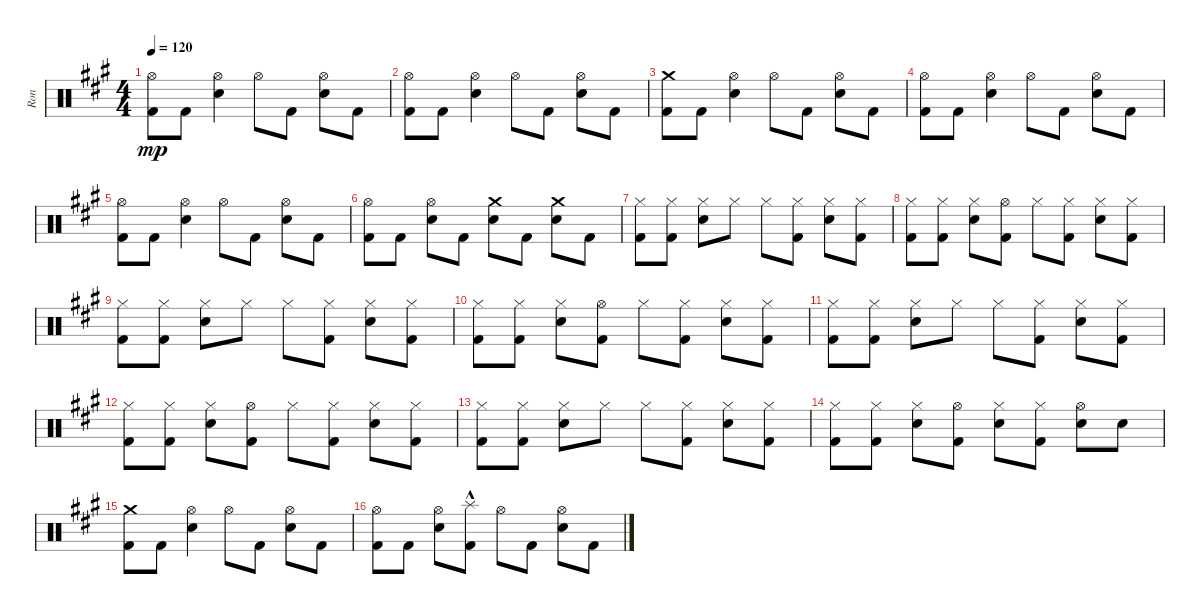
\track ("Ron" "Ron") {instrument percussion}
\staff {score}
\articulation defaults
\ts (4 4)
\tempo 120
\clef neutral
\ks a
("Hi-Hat (open)" "Kick (hit) 2").8{dy mp} "Kick (hit) 2".8 ("Hi-Hat (open)" "Electric Snare (hit)").4 "Hi-Hat (open)".8 "Kick (hit) 2".8 ("Hi-Hat (open)" "Electric Snare (hit)").8 "Kick (hit) 2".8 |
("Hi-Hat (open)" "Kick (hit) 2").8 "Kick (hit) 2".8 ("Hi-Hat (open)" "Electric Snare (hit)").4 "Hi-Hat (open)".8 "Kick (hit) 2".8 ("Hi-Hat (open)" "Electric Snare (hit)").8 "Kick (hit) 2".8 |
("Crash medium (hit)" "Kick (hit) 2").8 "Kick (hit) 2".8 ("Hi-Hat (open)" "Electric Snare (hit)").4 "Hi-Hat (open)".8 "Kick (hit) 2".8 ("Hi-Hat (open)" "Electric Snare (hit)").8 "Kick (hit) 2".8 |
("Hi-Hat (open)" "Kick (hit) 2").8 "Kick (hit) 2".8 ("Hi-Hat (open)" "Electric Snare (hit)").4 "Hi-Hat (open)".8 "Kick (hit) 2".8 ("Hi-Hat (open)" "Electric Snare (hit)").8 "Kick (hit) 2".8 |
("Hi-Hat (open)" "Kick (hit) 2").8 "Kick (hit) 2".8 ("Hi-Hat (open)" "Electric Snare (hit)").4 "Hi-Hat (open)".8 "Kick (hit) 2".8 ("Hi-Hat (open)" "Electric Snare (hit)").8 "Kick (hit) 2".8 |
("Hi-Hat (open)" "Kick (hit) 2").8 "Kick (hit) 2".8 ("Hi-Hat (open)" "Electric Snare (hit)").8 "Kick (hit) 2".8 ("Crash medium (hit)" "Electric Snare (hit)").8 "Kick (hit) 2".8 ("Crash medium (hit)" "Electric Snare (hit)").8 "Kick (hit) 2".8 |
("Hi-Hat (closed)" "Kick (hit) 2").8 ("Hi-Hat (closed)" "Kick (hit) 2").8 ("Hi-Hat (closed)" "Electric Snare (hit)").8 "Hi-Hat (closed)".8 "Hi-Hat (closed)".8 ("Hi-Hat (closed)" "Kick (hit) 2").8 ("Hi-Hat (closed)" "Electric Snare (hit)").8 ("Hi-Hat (closed)" "Kick (hit) 2").8 |
("Hi-Hat (closed)" "Kick (hit) 2").8 ("Hi-Hat (closed)" "Kick (hit) 2").8 ("Hi-Hat (closed)" "Electric Snare (hit)").8 ("Hi-Hat (open)" "Kick (hit) 2").8 "Hi-Hat (closed)".8 ("Hi-Hat (closed)" "Kick (hit) 2").8 ("Hi-Hat (closed)" "Electric Snare (hit)").8 ("Hi-Hat (closed)" "Kick (hit) 2").8 |
("Hi-Hat (closed)" "Kick (hit) 2").8 ("Hi-Hat (closed)" "Kick (hit) 2").8 ("Hi-Hat (closed)" "Electric Snare (hit)").8 "Hi-Hat (closed)".8 "Hi-Hat (closed)".8 ("Hi-Hat (closed)" "Kick (hit) 2").8 ("Hi-Hat (closed)" "Electric Snare (hit)").8 ("Hi-Hat (closed)" "Kick (hit) 2").8 |
("Hi-Hat (closed)" "Kick (hit) 2").8 ("Hi-Hat (closed)" "Kick (hit) 2").8 ("Hi-Hat (closed)" "Electric Snare (hit)").8 ("Hi-Hat (open)" "Kick (hit) 2").8 "Hi-Hat (closed)".8 ("Hi-Hat (closed)" "Kick (hit) 2").8 ("Hi-Hat (closed)" "Electric Snare (hit)").8 ("Hi-Hat (closed)" "Kick (hit) 2").8 |
("Hi-Hat (closed)" "Kick (hit) 2").8 ("Hi-Hat (closed)" "Kick (hit) 2").8 ("Hi-Hat (closed)" "Electric Snare (hit)").8 "Hi-Hat (closed)".8 "Hi-Hat (closed)".8 ("Hi-Hat (closed)" "Kick (hit) 2").8 ("Hi-Hat (closed)" "Electric Snare (hit)").8 ("Hi-Hat (closed)" "Kick (hit) 2").8 |
("Hi-Hat (closed)" "Kick (hit) 2").8 ("Hi-Hat (closed)" "Kick (hit) 2").8 ("Hi-Hat (closed)" "Electric Snare (hit)").8 ("Hi-Hat (open)" "Kick (hit) 2").8 "Hi-Hat (closed)".8 ("Hi-Hat (closed)" "Kick (hit) 2").8 ("Hi-Hat (closed)" "Electric Snare (hit)").8 ("Hi-Hat (closed)" "Kick (hit) 2").8 |
("Hi-Hat (closed)" "Kick (hit) 2").8 ("Hi-Hat (closed)" "Kick (hit) 2").8 ("Hi-Hat (closed)" "Electric Snare (hit)").8 "Hi-Hat (closed)".8 "Hi-Hat (closed)".8 ("Hi-Hat (closed)" "Kick (hit) 2").8 ("Hi-Hat (closed)" "Electric Snare (hit)").8 ("Hi-Hat (closed)" "Kick (hit) 2").8 |
("Hi-Hat (closed)" "Kick (hit) 2").8 ("Hi-Hat (closed)" "Kick (hit) 2").8 ("Hi-Hat (closed)" "Electric Snare (hit)").8 ("Hi-Hat (open)" "Kick (hit) 2").8 ("Hi-Hat (closed)" "Electric Snare (hit)").8 ("Hi-Hat (closed)" "Kick (hit) 2").8 ("Hi-Hat (open)" "Electric Snare (hit)").8 "Electric Snare (hit)".8 |
("Crash medium (hit)" "Kick (hit) 2").8 "Kick (hit) 2".8 ("Hi-Hat (open)" "Electric Snare (hit)").4 "Hi-Hat (open)".8 "Kick (hit) 2".8 ("Hi-Hat (open)" "Electric Snare (hit)").8 "Kick (hit) 2".8 |
("Hi-Hat (open)" "Kick (hit) 2").8 "Kick (hit) 2".8 ("Hi-Hat (open)" "Electric Snare (hit)").8 ("Splash (hit)"{hac} "Kick (hit) 2").8 "Hi-Hat (open)".8 "Kick (hit) 2".8 ("Hi-Hat (open)" "Electric Snare (hit)").8 "Kick (hit) 2".8
